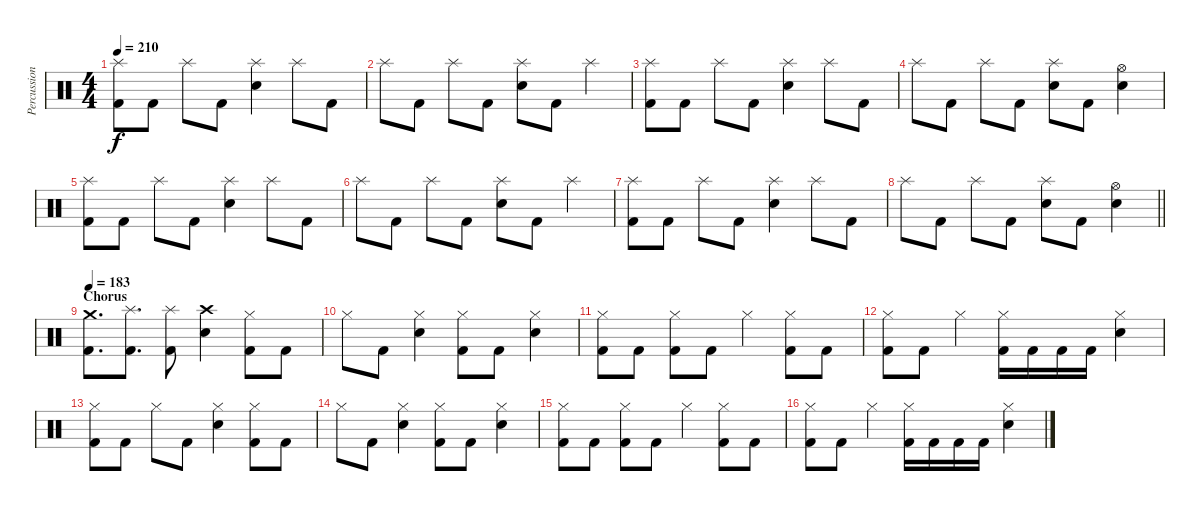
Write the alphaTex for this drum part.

\track ("Percussion" "Percussion") {instrument percussion}
\staff {score}
\articulation defaults
\ts (4 4)
\tempo 210
\clef neutral
\ks c
("Splash (hit)" "Kick (hit) 2").8{dy f} "Kick (hit) 2".8 "Splash (hit)".8 "Kick (hit) 2".8 ("Splash (hit)" "Electric Snare (hit)").4 "Splash (hit)".8 "Kick (hit) 2".8 |
"Splash (hit)".8 "Kick (hit) 2".8 "Splash (hit)".8 "Kick (hit) 2".8 ("Splash (hit)" "Electric Snare (hit)").8 "Kick (hit) 2".8 "Splash (hit)".4 |
("Splash (hit)" "Kick (hit) 2").8 "Kick (hit) 2".8 "Splash (hit)".8 "Kick (hit) 2".8 ("Splash (hit)" "Electric Snare (hit)").4 "Splash (hit)".8 "Kick (hit) 2".8 |
"Splash (hit)".8 "Kick (hit) 2".8 "Splash (hit)".8 "Kick (hit) 2".8 ("Splash (hit)" "Electric Snare (hit)").8 "Kick (hit) 2".8 ("Hi-Hat (open)" "Electric Snare (hit)").4 |
("Splash (hit)" "Kick (hit) 2").8 "Kick (hit) 2".8 "Splash (hit)".8 "Kick (hit) 2".8 ("Splash (hit)" "Electric Snare (hit)").4 "Splash (hit)".8 "Kick (hit) 2".8 |
"Splash (hit)".8 "Kick (hit) 2".8 "Splash (hit)".8 "Kick (hit) 2".8 ("Splash (hit)" "Electric Snare (hit)").8 "Kick (hit) 2".8 "Splash (hit)".4 |
("Splash (hit)" "Kick (hit) 2").8 "Kick (hit) 2".8 "Splash (hit)".8 "Kick (hit) 2".8 ("Splash (hit)" "Electric Snare (hit)").4 "Splash (hit)".8 "Kick (hit) 2".8 |
\barLineRight lightlight "Splash (hit)".8 "Kick (hit) 2".8 "Splash (hit)".8 "Kick (hit) 2".8
("Splash (hit)" "Electric Snare (hit)").8 "Kick (hit) 2".8 ("Hi-Hat (open)" "Electric Snare (hit)").4 |
\section ("" "Chorus")
\tempo 183
("Crash medium (hit)" "Kick (hit) 2").8{d} ("Splash (hit)" "Kick (hit) 2").8{d} ("Splash (hit)" "Kick (hit) 2").8 ("Crash high (hit)" "Electric Snare (hit)").4 ("Hi-Hat (closed)" "Kick (hit) 2").8 "Kick (hit) 2".8 |
"Hi-Hat (closed)".8 "Kick (hit) 2".8 ("Hi-Hat (closed)" "Electric Snare (hit)").4 ("Hi-Hat (closed)" "Kick (hit) 2").8 "Kick (hit) 2".8 ("Hi-Hat (closed)" "Electric Snare (hit)").4 |
("Hi-Hat (closed)" "Kick (hit) 2").8 "Kick (hit) 2".8 ("Hi-Hat (closed)" "Kick (hit) 2").8 "Kick (hit) 2".8 "Hi-Hat (closed)".4 ("Hi-Hat (closed)" "Kick (hit) 2").8 "Kick (hit) 2".8 |
("Hi-Hat (closed)" "Kick (hit) 2").8 "Kick (hit) 2".8 "Hi-Hat (closed)".4 ("Hi-Hat (closed)" "Kick (hit) 2").16 "Kick (hit) 2".16 "Kick (hit) 2".16 "Kick (hit) 2".16 ("Hi-Hat (closed)" "Electric Snare (hit)").4 |
("Hi-Hat (closed)" "Kick (hit) 2").8 "Kick (hit) 2".8 "Hi-Hat (closed)".8 "Kick (hit) 2".8 ("Hi-Hat (closed)" "Electric Snare (hit)").4 ("Hi-Hat (closed)" "Kick (hit) 2").8 "Kick (hit) 2".8 |
"Hi-Hat (closed)".8 "Kick (hit) 2".8 ("Hi-Hat (closed)" "Electric Snare (hit)").4 ("Hi-Hat (closed)" "Kick (hit) 2").8 "Kick (hit) 2".8 ("Hi-Hat (closed)" "Electric Snare (hit)").4 |
("Hi-Hat (closed)" "Kick (hit) 2").8 "Kick (hit) 2".8 ("Hi-Hat (closed)" "Kick (hit) 2").8 "Kick (hit) 2".8 "Hi-Hat (closed)".4 ("Hi-Hat (closed)" "Kick (hit) 2").8 "Kick (hit) 2".8 |
("Hi-Hat (closed)" "Kick (hit) 2").8 "Kick (hit) 2".8 "Hi-Hat (closed)".4 ("Hi-Hat (closed)" "Kick (hit) 2").16 "Kick (hit) 2".16 "Kick (hit) 2".16 "Kick (hit) 2".16 ("Hi-Hat (closed)" "Electric Snare (hit)").4
